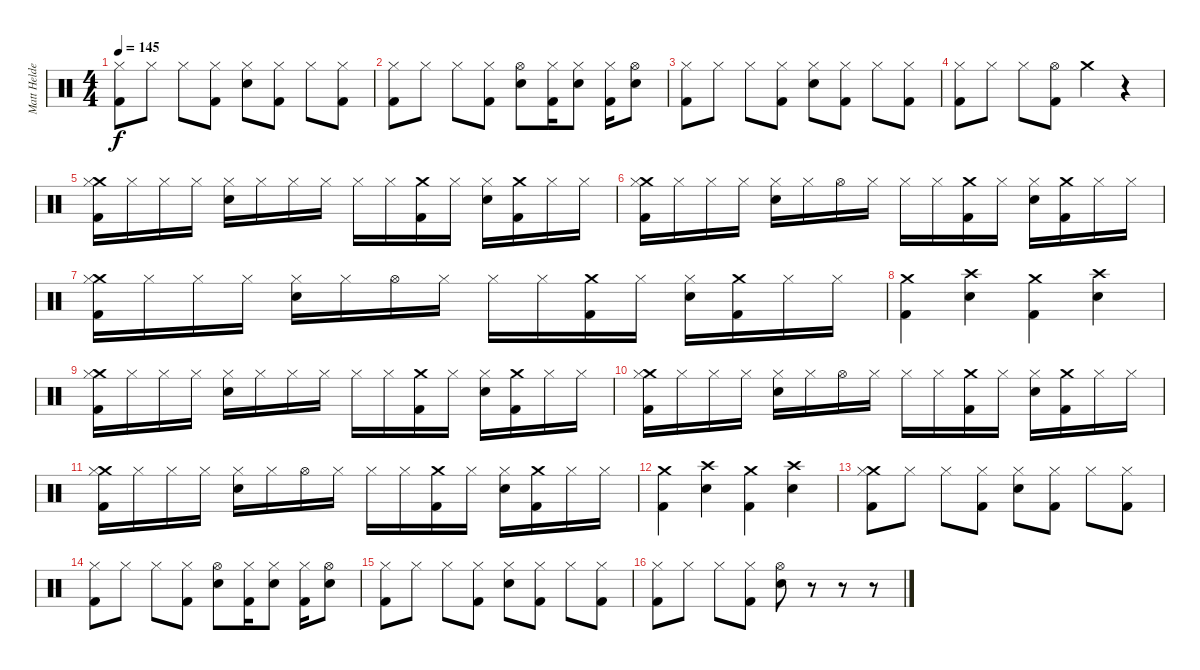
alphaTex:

\track ("Matt Helders" "Matt Helde") {instrument percussion}
\staff {score}
\articulation defaults
\ts (4 4)
\tempo 145
\clef neutral
\ks c
("Hi-Hat (closed)" "Kick (hit) 2").8{dy f} "Hi-Hat (closed)".8 "Hi-Hat (closed)".8 ("Hi-Hat (closed)" "Kick (hit) 2").8 ("Hi-Hat (closed)" "Snare (hit) 2").8 ("Hi-Hat (closed)" "Kick (hit) 2").8 "Hi-Hat (closed)".8 ("Hi-Hat (closed)" "Kick (hit) 2").8 |
("Hi-Hat (closed)" "Kick (hit) 2").8 "Hi-Hat (closed)".8 "Hi-Hat (closed)".8 ("Hi-Hat (closed)" "Kick (hit) 2").8 ("Hi-Hat (open)" "Snare (hit) 2").8 ("Hi-Hat (closed)" "Kick (hit) 2").16 ("Hi-Hat (closed)" "Snare (hit) 2").8 ("Hi-Hat (closed)" "Kick (hit) 2").16 ("Hi-Hat (open)" "Snare (hit) 2").8 |
("Hi-Hat (closed)" "Kick (hit) 2").8 "Hi-Hat (closed)".8 "Hi-Hat (closed)".8 ("Hi-Hat (closed)" "Kick (hit) 2").8 ("Hi-Hat (closed)" "Snare (hit) 2").8 ("Hi-Hat (closed)" "Kick (hit) 2").8 "Hi-Hat (closed)".8 ("Hi-Hat (closed)" "Kick (hit) 2").8 |
("Hi-Hat (closed)" "Kick (hit) 2").8 "Hi-Hat (closed)".8 "Hi-Hat (closed)".8 ("Hi-Hat (open)" "Kick (hit) 2").8 "Crash medium (hit)".4 r.4 |
("Crash medium (hit)" "Hi-Hat (closed)" "Kick (hit) 2").16 "Hi-Hat (closed)".16 "Hi-Hat (closed)".16 "Hi-Hat (closed)".16 ("Hi-Hat (closed)" "Snare (hit) 2").16 "Hi-Hat (closed)".16 "Hi-Hat (closed)".16 "Hi-Hat (closed)".16 "Hi-Hat (closed)".16 "Hi-Hat (closed)".16 ("Crash medium (hit)" "Kick (hit) 2").16 "Hi-Hat (closed)".16 ("Hi-Hat (closed)" "Snare (hit) 2").16 ("Crash medium (hit)" "Kick (hit) 2").16 "Hi-Hat (closed)".16 "Hi-Hat (closed)".16 |
("Crash medium (hit)" "Hi-Hat (closed)" "Kick (hit) 2").16 "Hi-Hat (closed)".16 "Hi-Hat (closed)".16 "Hi-Hat (closed)".16 ("Hi-Hat (closed)" "Snare (hit) 2").16 "Hi-Hat (closed)".16 "Hi-Hat (open)".16 "Hi-Hat (closed)".16 "Hi-Hat (closed)".16 "Hi-Hat (closed)".16 ("Crash medium (hit)" "Kick (hit) 2").16 "Hi-Hat (closed)".16 ("Hi-Hat (closed)" "Snare (hit) 2").16 ("Crash medium (hit)" "Kick (hit) 2").16 "Hi-Hat (closed)".16 "Hi-Hat (closed)".16 |
("Crash medium (hit)" "Hi-Hat (closed)" "Kick (hit) 2").16 "Hi-Hat (closed)".16 "Hi-Hat (closed)".16 "Hi-Hat (closed)".16 ("Hi-Hat (closed)" "Snare (hit) 2").16 "Hi-Hat (closed)".16 "Hi-Hat (open)".16 "Hi-Hat (closed)".16 "Hi-Hat (closed)".16 "Hi-Hat (closed)".16 ("Crash medium (hit)" "Kick (hit) 2").16 "Hi-Hat (closed)".16 ("Hi-Hat (closed)" "Snare (hit) 2").16 ("Crash medium (hit)" "Kick (hit) 2").16 "Hi-Hat (closed)".16 "Hi-Hat (closed)".16 |
("Crash medium (hit)" "Kick (hit) 2").4 ("Crash high (hit)" "Snare (hit) 2").4 ("Crash medium (hit)" "Kick (hit) 2").4 ("Crash high (hit)" "Snare (hit) 2").4 |
("Crash medium (hit)" "Hi-Hat (closed)" "Kick (hit) 2").16 "Hi-Hat (closed)".16 "Hi-Hat (closed)".16 "Hi-Hat (closed)".16 ("Hi-Hat (closed)" "Snare (hit) 2").16 "Hi-Hat (closed)".16 "Hi-Hat (closed)".16 "Hi-Hat (closed)".16 "Hi-Hat (closed)".16 "Hi-Hat (closed)".16 ("Crash medium (hit)" "Kick (hit) 2").16 "Hi-Hat (closed)".16 ("Hi-Hat (closed)" "Snare (hit) 2").16 ("Crash medium (hit)" "Kick (hit) 2").16 "Hi-Hat (closed)".16 "Hi-Hat (closed)".16 |
("Crash medium (hit)" "Hi-Hat (closed)" "Kick (hit) 2").16 "Hi-Hat (closed)".16 "Hi-Hat (closed)".16 "Hi-Hat (closed)".16 ("Hi-Hat (closed)" "Snare (hit) 2").16 "Hi-Hat (closed)".16 "Hi-Hat (open)".16 "Hi-Hat (closed)".16 "Hi-Hat (closed)".16 "Hi-Hat (closed)".16 ("Crash medium (hit)" "Kick (hit) 2").16 "Hi-Hat (closed)".16 ("Hi-Hat (closed)" "Snare (hit) 2").16 ("Crash medium (hit)" "Kick (hit) 2").16 "Hi-Hat (closed)".16 "Hi-Hat (closed)".16 |
("Crash medium (hit)" "Hi-Hat (closed)" "Kick (hit) 2").16 "Hi-Hat (closed)".16 "Hi-Hat (closed)".16 "Hi-Hat (closed)".16 ("Hi-Hat (closed)" "Snare (hit) 2").16 "Hi-Hat (closed)".16 "Hi-Hat (open)".16 "Hi-Hat (closed)".16 "Hi-Hat (closed)".16 "Hi-Hat (closed)".16 ("Crash medium (hit)" "Kick (hit) 2").16 "Hi-Hat (closed)".16 ("Hi-Hat (closed)" "Snare (hit) 2").16 ("Crash medium (hit)" "Kick (hit) 2").16 "Hi-Hat (closed)".16 "Hi-Hat (closed)".16 |
("Crash medium (hit)" "Kick (hit) 2").4 ("Crash high (hit)" "Snare (hit) 2").4 ("Crash medium (hit)" "Kick (hit) 2").4 ("Crash high (hit)" "Snare (hit) 2").4 |
("Crash medium (hit)" "Hi-Hat (closed)" "Kick (hit) 2").8 "Hi-Hat (closed)".8 "Hi-Hat (closed)".8 ("Hi-Hat (closed)" "Kick (hit) 2").8 ("Hi-Hat (closed)" "Snare (hit) 2").8 ("Hi-Hat (closed)" "Kick (hit) 2").8 "Hi-Hat (closed)".8 ("Hi-Hat (closed)" "Kick (hit) 2").8 |
("Hi-Hat (closed)" "Kick (hit) 2").8 "Hi-Hat (closed)".8 "Hi-Hat (closed)".8 ("Hi-Hat (closed)" "Kick (hit) 2").8 ("Hi-Hat (open)" "Snare (hit) 2").8 ("Hi-Hat (closed)" "Kick (hit) 2").16 ("Hi-Hat (closed)" "Snare (hit) 2").8 ("Hi-Hat (closed)" "Kick (hit) 2").16 ("Hi-Hat (open)" "Snare (hit) 2").8 |
("Hi-Hat (closed)" "Kick (hit) 2").8 "Hi-Hat (closed)".8 "Hi-Hat (closed)".8 ("Hi-Hat (closed)" "Kick (hit) 2").8 ("Hi-Hat (closed)" "Snare (hit) 2").8 ("Hi-Hat (closed)" "Kick (hit) 2").8 "Hi-Hat (closed)".8 ("Hi-Hat (closed)" "Kick (hit) 2").8 |
("Hi-Hat (closed)" "Kick (hit) 2").8 "Hi-Hat (closed)".8 "Hi-Hat (closed)".8 ("Hi-Hat (closed)" "Kick (hit) 2").8 ("Hi-Hat (open)" "Snare (hit) 2").8 r.8 r.8 r.8
